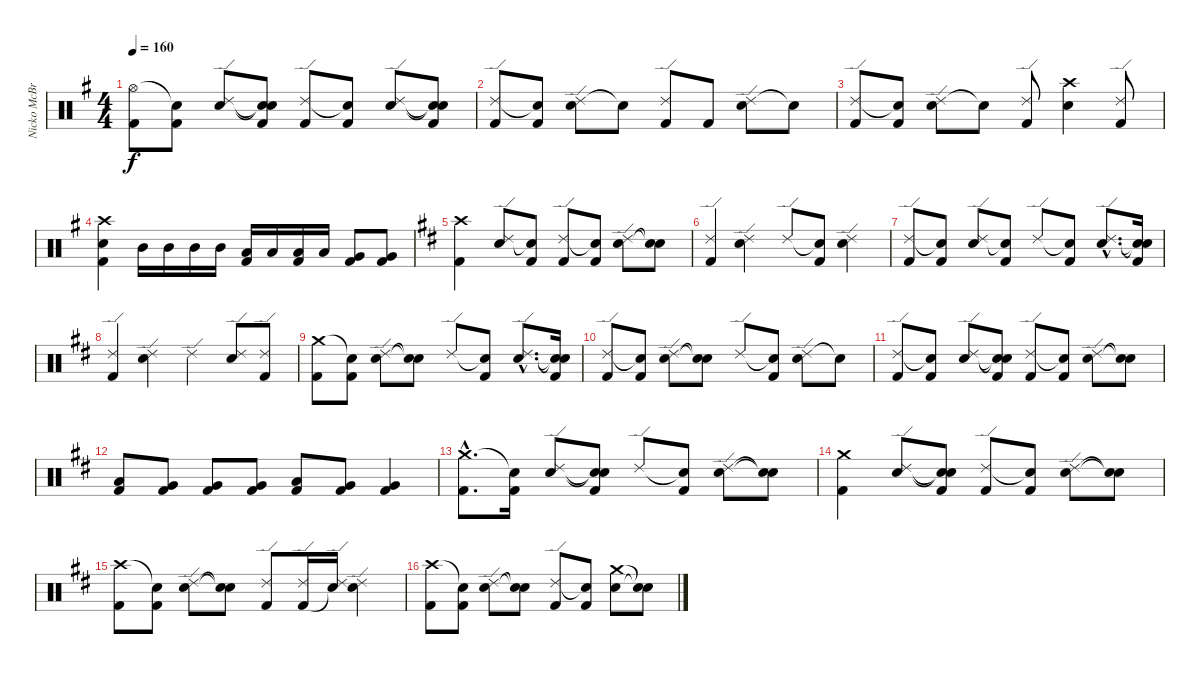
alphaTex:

\track ("Nicko McBrain" "Nicko McBr") {instrument percussion}
\staff {score}
\articulation defaults
\ts (4 4)
\tempo 160
\clef neutral
\ks g
("Hi-Hat (open)" "Kick (hit) 2").8{dy f} ("Snare (hit)"{t} "Kick (hit) 2").8 ("Ride (edge) 2" "Electric Snare (hit)").8 ("Snare (hit)"{t} "Snare (hit)"{t} "Kick (hit) 2").8 ("Ride (edge) 2" "Kick (hit) 2").8 ("Snare (hit)"{t} "Kick (hit) 2").8 ("Ride (edge) 2" "Electric Snare (hit)").8 ("Snare (hit)"{t} "Snare (hit)"{t} "Kick (hit) 2").8 |
("Ride (edge) 2" "Kick (hit) 2").8 ("Snare (hit)"{t} "Kick (hit) 2").8 ("Ride (edge) 2" "Electric Snare (hit)").8 "Snare (hit)"{t}.8 ("Ride (edge) 2" "Kick (hit) 2").8 "Kick (hit) 2".8 ("Ride (edge) 2" "Electric Snare (hit)").8 "Snare (hit)"{t}.8 |
("Ride (edge) 2" "Kick (hit) 2").8 ("Snare (hit)"{t} "Kick (hit) 2").8 ("Ride (edge) 2" "Electric Snare (hit)").8 "Snare (hit)"{t}.8 ("Ride (edge) 2" "Kick (hit) 2").8 ("Crash high (hit)" "Electric Snare (hit)").4 ("Ride (edge) 2" "Kick (hit) 2").8 |
("Crash high (hit)" "Electric Snare (hit)" "Kick (hit) 2").4 "Mid Tom (hit)".16 "Mid Tom (hit)".16 "Mid Tom (hit)".16 "Mid Tom (hit)".16 ("Low Tom (hit)" "Kick (hit) 2").16 "Low Tom (hit)".16 ("Low Tom (hit)" "Kick (hit) 2").16 "Low Tom (hit)".16 ("Very Low Tom (hit)" "Kick (hit) 2").8 ("Very Low Tom (hit)" "Kick (hit) 2").8 |
\ks d
("Crash high (hit)" "Kick (hit) 2").4 ("Ride (edge) 2" "Electric Snare (hit)").8 ("Snare (hit)"{t} "Kick (hit) 2").8 ("Ride (edge) 2" "Kick (hit) 2").8 ("Snare (hit)"{t} "Kick (hit) 2").8 ("Ride (edge) 2" "Electric Snare (hit)").8 ("Snare (hit)"{t} "Snare (hit)"{t}).8 |
("Ride (edge) 2" "Kick (hit) 2").4 ("Ride (edge) 2" "Electric Snare (hit)").4 "Ride (edge) 2".8 ("Snare (hit)"{t} "Kick (hit) 2").8 ("Ride (edge) 2" "Electric Snare (hit)").4 |
("Ride (edge) 2" "Kick (hit) 2").8 ("Snare (hit)"{t} "Kick (hit) 2").8 ("Ride (edge) 2" "Electric Snare (hit)").8 ("Snare (hit)"{t} "Kick (hit) 2").8 "Ride (edge) 2".8 ("Snare (hit)"{t} "Kick (hit) 2").8 ("Ride (edge) 2"{hac} "Electric Snare (hit)"{hac}).8{d} ("Snare (hit)"{t} "Snare (hit)"{t} "Kick (hit) 2").16 |
("Ride (edge) 2" "Kick (hit) 2").4 ("Ride (edge) 2" "Electric Snare (hit)").4 "Ride (edge) 2".4 ("Ride (edge) 2" "Electric Snare (hit)").8 ("Ride (edge) 2" "Kick (hit) 2").8 |
("Crash medium (hit)" "Kick (hit) 2").8 ("Snare (hit)"{t} "Kick (hit) 2").8 ("Ride (edge) 2" "Electric Snare (hit)").8 ("Snare (hit)"{t} "Snare (hit)"{t}).8 "Ride (edge) 2".8 ("Snare (hit)"{t} "Kick (hit) 2").8 ("Ride (edge) 2"{hac} "Electric Snare (hit)"{hac}).8{d} ("Snare (hit)"{t} "Snare (hit)"{t} "Kick (hit) 2").16 |
("Ride (edge) 2" "Kick (hit) 2").8 ("Snare (hit)"{t} "Kick (hit) 2").8 ("Ride (edge) 2" "Electric Snare (hit)").8 ("Snare (hit)"{t} "Snare (hit)"{t}).8 "Ride (edge) 2".8 ("Snare (hit)"{t} "Kick (hit) 2").8 ("Ride (edge) 2" "Electric Snare (hit)").8 "Snare (hit)"{t}.8 |
("Ride (edge) 2" "Kick (hit) 2").8 ("Snare (hit)"{t} "Kick (hit) 2").8 ("Ride (edge) 2" "Electric Snare (hit)").8 ("Snare (hit)"{t} "Snare (hit)"{t} "Kick (hit) 2").8 ("Ride (edge) 2" "Kick (hit) 2").8 ("Snare (hit)"{t} "Kick (hit) 2").8 ("Ride (edge) 2" "Electric Snare (hit)").8 ("Snare (hit)"{t} "Snare (hit)"{t}).8 |
("Low Tom (hit)" "Kick (hit) 2").8 ("Very Low Tom (hit)" "Kick (hit) 2").8 ("Very Low Tom (hit)" "Kick (hit) 2").8 ("Very Low Tom (hit)" "Kick (hit) 2").8 ("Low Tom (hit)" "Kick (hit) 2").8 ("Very Low Tom (hit)" "Kick (hit) 2").8 ("Very Low Tom (hit)" "Kick (hit) 2").4 |
("Crash medium (hit)"{hac} "Kick (hit) 2"{hac}).8{d} ("Snare (hit)"{t} "Kick (hit) 2").16 ("Ride (edge) 2" "Electric Snare (hit)").8 ("Snare (hit)"{t} "Snare (hit)"{t} "Kick (hit) 2").8 "Ride (edge) 2".8 ("Snare (hit)"{t} "Kick (hit) 2").8 ("Ride (edge) 2" "Electric Snare (hit)").8 ("Snare (hit)"{t} "Snare (hit)"{t}).8 |
("Crash medium (hit)" "Kick (hit) 2").4 ("Ride (edge) 2" "Electric Snare (hit)").8 ("Snare (hit)"{t} "Snare (hit)"{t} "Kick (hit) 2").8 ("Ride (edge) 2" "Kick (hit) 2").8 ("Snare (hit)"{t} "Kick (hit) 2").8 ("Ride (edge) 2" "Electric Snare (hit)").8 ("Snare (hit)"{t} "Snare (hit)"{t}).8 |
("Crash high (hit)" "Kick (hit) 2").8 ("Snare (hit)"{t} "Kick (hit) 2").8 ("Ride (edge) 2" "Electric Snare (hit)").8 ("Snare (hit)"{t} "Snare (hit)"{t}).8 ("Ride (edge) 2" "Kick (hit) 2").8 ("Ride (edge) 2" "Kick (hit) 2").16 ("Ride (edge) 2" "Snare (hit)"{t}).16 ("Ride (edge) 2" "Electric Snare (hit)").4 |
("Crash high (hit)" "Kick (hit) 2").8 ("Snare (hit)"{t} "Kick (hit) 2").8 ("Ride (edge) 2" "Electric Snare (hit)").8 ("Snare (hit)"{t} "Snare (hit)"{t}).8 ("Ride (edge) 2" "Kick (hit) 2").8 ("Snare (hit)"{t} "Kick (hit) 2").8 ("Crash medium (hit)" "Electric Snare (hit)").8 ("Snare (hit)"{t} "Snare (hit)"{t}).8
